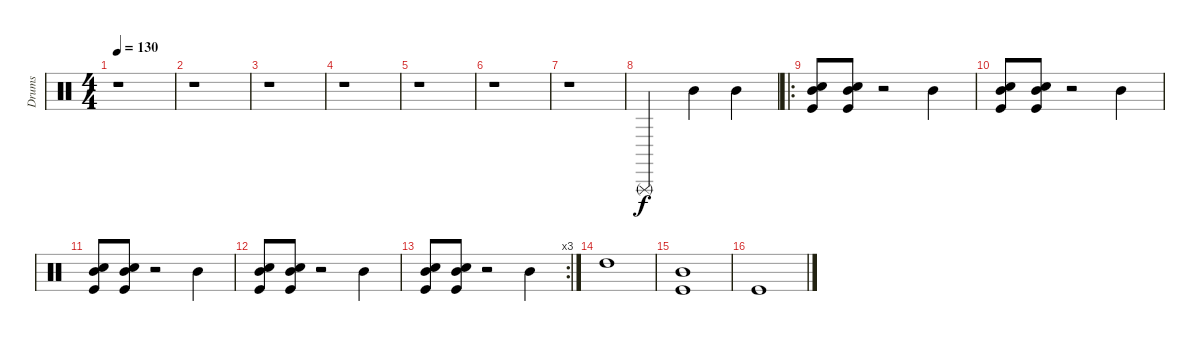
\track ("Drums" "Drums") {instrument percussion}
\staff {score}
\articulation defaults
\ts (4 4)
\tempo 130
\clef neutral
\ks c
r.1{dy f} |
r.1 |
r.1 |
r.1 |
r.1 |
r.1 |
r.1 |
"Triangle (rnute)".2 "Mid Tom (hit)".4 "Mid Tom (hit)".4 |
\ro
("Snare (hit) 2" "Mid Tom (hit)" "Kick (hit)").8 ("Snare (hit) 2" "Mid Tom (hit)" "Kick (hit)").8 r.2 "Mid Tom (hit)".4 |
("Snare (hit) 2" "Mid Tom (hit)" "Kick (hit)").8 ("Snare (hit) 2" "Mid Tom (hit)" "Kick (hit)").8 r.2 "Mid Tom (hit)".4 |
("Snare (hit) 2" "Mid Tom (hit)" "Kick (hit)").8 ("Snare (hit) 2" "Mid Tom (hit)" "Kick (hit)").8 r.2 "Mid Tom (hit)".4 |
("Snare (hit) 2" "Mid Tom (hit)" "Kick (hit)").8 ("Snare (hit) 2" "Mid Tom (hit)" "Kick (hit)").8 r.2 "Mid Tom (hit)".4 |
\rc 3
("Snare (hit) 2" "Mid Tom (hit)" "Kick (hit)").8 ("Snare (hit) 2" "Mid Tom (hit)" "Kick (hit)").8 r.2 "Mid Tom (hit)".4 |
"High Tom (hit)".1 |
("Mid Tom (hit)" "Kick (hit)").1 |
"Kick (hit)".1
